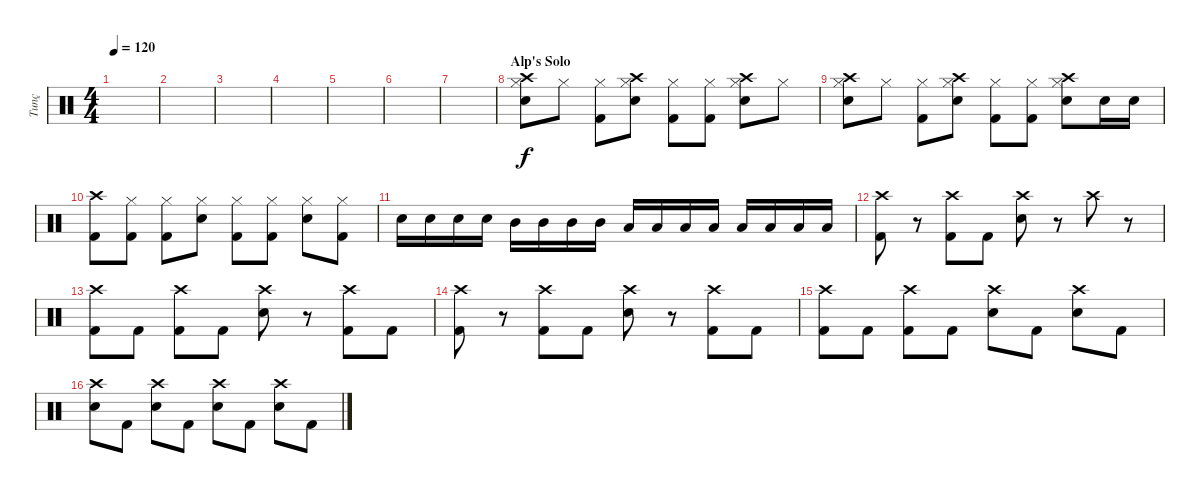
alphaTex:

\track ("Tunç" "Tunç") {instrument percussion}
\staff {score}
\articulation defaults
\ts (4 4)
\tempo 120
\clef neutral
\ks c
|
|
|
|
|
|
|
\section ("" "Alp's Solo")
("Crash high (hit)" "Snare (hit) 2" "Hi-Hat (closed)").8 "Hi-Hat (closed)".8 ("Kick (hit) 2" "Hi-Hat (closed)").8 ("Crash high (hit)" "Snare (hit) 2" "Hi-Hat (closed)").8 ("Kick (hit) 2" "Hi-Hat (closed)").8 ("Kick (hit) 2" "Hi-Hat (closed)").8 ("Crash high (hit)" "Snare (hit) 2" "Hi-Hat (closed)").8 "Hi-Hat (closed)".8 |
("Crash high (hit)" "Snare (hit) 2" "Hi-Hat (closed)").8 "Hi-Hat (closed)".8 ("Kick (hit) 2" "Hi-Hat (closed)").8 ("Crash high (hit)" "Snare (hit) 2" "Hi-Hat (closed)").8 ("Kick (hit) 2" "Hi-Hat (closed)").8 ("Kick (hit) 2" "Hi-Hat (closed)").8 ("Crash high (hit)" "Snare (hit) 2" "Hi-Hat (closed)").8 "Snare (hit) 2".16 "Snare (hit) 2".16 |
("Crash high (hit)" "Kick (hit) 2").8 ("Kick (hit) 2" "Hi-Hat (closed)").8 ("Kick (hit) 2" "Hi-Hat (closed)").8 ("Snare (hit) 2" "Hi-Hat (closed)").8 ("Kick (hit) 2" "Hi-Hat (closed)").8 ("Kick (hit) 2" "Hi-Hat (closed)").8 ("Snare (hit) 2" "Hi-Hat (closed)").8 ("Kick (hit) 2" "Hi-Hat (closed)").8 |
"Snare (hit) 2".16 "Snare (hit) 2".16 "Snare (hit) 2".16 "Snare (hit) 2".16 "Mid Tom (hit)".16 "Mid Tom (hit)".16 "Mid Tom (hit)".16 "Mid Tom (hit)".16 "Low Tom (hit)".16 "Low Tom (hit)".16 "Low Tom (hit)".16 "Low Tom (hit)".16 "Low Floor Tom (hit)".16 "Low Floor Tom (hit)".16 "Low Floor Tom (hit)".16 "Low Floor Tom (hit)".16 |
("Crash high (hit)" "Kick (hit) 2").8 r.8 ("Crash high (hit)" "Kick (hit) 2").8 "Kick (hit) 2".8 ("Crash high (hit)" "Snare (hit) 2").8 r.8 "Crash high (hit)".8 r.8 |
("Crash high (hit)" "Kick (hit) 2").8 "Kick (hit) 2".8 ("Crash high (hit)" "Kick (hit) 2").8 "Kick (hit) 2".8 ("Crash high (hit)" "Snare (hit) 2").8 r.8 ("Crash high (hit)" "Kick (hit) 2").8 "Kick (hit) 2".8 |
("Crash high (hit)" "Kick (hit) 2").8 r.8 ("Crash high (hit)" "Kick (hit) 2").8 "Kick (hit) 2".8 ("Crash high (hit)" "Snare (hit) 2").8 r.8 ("Crash high (hit)" "Kick (hit) 2").8 "Kick (hit) 2".8 |
("Crash high (hit)" "Kick (hit) 2").8 "Kick (hit) 2".8 ("Crash high (hit)" "Kick (hit) 2").8 "Kick (hit) 2".8 ("Crash high (hit)" "Snare (hit) 2").8 "Kick (hit) 2".8 ("Crash high (hit)" "Snare (hit) 2").8 "Kick (hit) 2".8 |
("Crash high (hit)" "Snare (hit) 2").8 "Kick (hit) 2".8 ("Crash high (hit)" "Snare (hit) 2").8 "Kick (hit) 2".8 ("Crash high (hit)" "Snare (hit) 2").8 "Kick (hit) 2".8 ("Crash high (hit)" "Snare (hit) 2").8 "Kick (hit) 2".8
